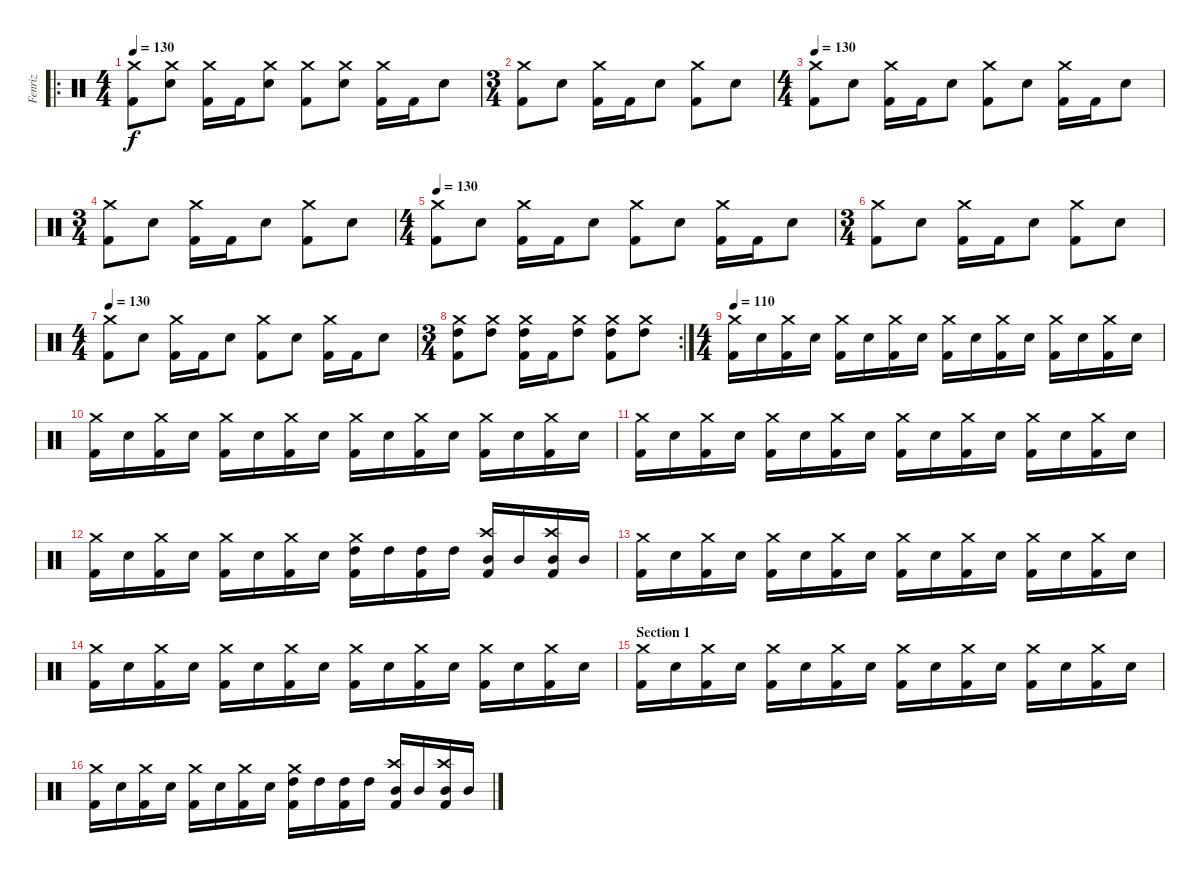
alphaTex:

\track ("Fenriz" "Fenriz") {instrument percussion}
\staff {score}
\articulation defaults
\ro
\ts (4 4)
\tempo 130
\clef neutral
\ks c
("Crash medium (hit)" "Kick (hit) 2").8{dy f} ("Crash medium (hit)" "Electric Snare (hit)").8 ("Crash medium (hit)" "Kick (hit) 2").16 "Kick (hit) 2".16 ("Crash medium (hit)" "Electric Snare (hit)").8 ("Crash medium (hit)" "Kick (hit) 2").8 ("Crash medium (hit)" "Electric Snare (hit)").8 ("Crash medium (hit)" "Kick (hit) 2").16 "Kick (hit) 2".16 "Electric Snare (hit)".8 |
\ts (3 4)
("Crash medium (hit)" "Kick (hit) 2").8 "Electric Snare (hit)".8 ("Crash medium (hit)" "Kick (hit) 2").16 "Kick (hit) 2".16 "Electric Snare (hit)".8 ("Crash medium (hit)" "Kick (hit) 2").8 "Electric Snare (hit)".8 |
\ts (4 4)
\tempo 130
("Crash medium (hit)" "Kick (hit) 2").8 "Electric Snare (hit)".8 ("Crash medium (hit)" "Kick (hit) 2").16 "Kick (hit) 2".16 "Electric Snare (hit)".8 ("Crash medium (hit)" "Kick (hit) 2").8 "Electric Snare (hit)".8 ("Crash medium (hit)" "Kick (hit) 2").16 "Kick (hit) 2".16 "Electric Snare (hit)".8 |
\ts (3 4)
("Crash medium (hit)" "Kick (hit) 2").8 "Electric Snare (hit)".8 ("Crash medium (hit)" "Kick (hit) 2").16 "Kick (hit) 2".16 "Electric Snare (hit)".8 ("Crash medium (hit)" "Kick (hit) 2").8 "Electric Snare (hit)".8 |
\ts (4 4)
\tempo 130
("Crash medium (hit)" "Kick (hit) 2").8 "Electric Snare (hit)".8 ("Crash medium (hit)" "Kick (hit) 2").16 "Kick (hit) 2".16 "Electric Snare (hit)".8 ("Crash medium (hit)" "Kick (hit) 2").8 "Electric Snare (hit)".8 ("Crash medium (hit)" "Kick (hit) 2").16 "Kick (hit) 2".16 "Electric Snare (hit)".8 |
\ts (3 4)
("Crash medium (hit)" "Kick (hit) 2").8 "Electric Snare (hit)".8 ("Crash medium (hit)" "Kick (hit) 2").16 "Kick (hit) 2".16 "Electric Snare (hit)".8 ("Crash medium (hit)" "Kick (hit) 2").8 "Electric Snare (hit)".8 |
\ts (4 4)
\tempo 130
("Crash medium (hit)" "Kick (hit) 2").8 "Electric Snare (hit)".8 ("Crash medium (hit)" "Kick (hit) 2").16 "Kick (hit) 2".16 "Electric Snare (hit)".8 ("Crash medium (hit)" "Kick (hit) 2").8 "Electric Snare (hit)".8 ("Crash medium (hit)" "Kick (hit) 2").16 "Kick (hit) 2".16 "Electric Snare (hit)".8 |
\rc 2
\ts (3 4)
("Crash medium (hit)" "High Tom (hit)" "Kick (hit) 2").8 ("Crash medium (hit)" "High Tom (hit)").8 ("Crash medium (hit)" "High Tom (hit)" "Kick (hit) 2").16 "Kick (hit) 2".16 ("Crash medium (hit)" "High Tom (hit)").8 ("Crash medium (hit)" "High Tom (hit)" "Kick (hit) 2").8 ("Crash medium (hit)" "High Tom (hit)").8 |
\ts (4 4)
\tempo 110
("Crash medium (hit)" "Kick (hit) 2").16{volume 13} "Electric Snare (hit)".16 ("Crash medium (hit)" "Kick (hit) 2").16 "Electric Snare (hit)".16 ("Crash medium (hit)" "Kick (hit) 2").16 "Electric Snare (hit)".16 ("Crash medium (hit)" "Kick (hit) 2").16 "Electric Snare (hit)".16 ("Crash medium (hit)" "Kick (hit) 2").16 "Electric Snare (hit)".16 ("Crash medium (hit)" "Kick (hit) 2").16 "Electric Snare (hit)".16 ("Crash medium (hit)" "Kick (hit) 2").16 "Electric Snare (hit)".16 ("Crash medium (hit)" "Kick (hit) 2").16 "Electric Snare (hit)".16 |
("Crash medium (hit)" "Kick (hit) 2").16 "Electric Snare (hit)".16 ("Crash medium (hit)" "Kick (hit) 2").16 "Electric Snare (hit)".16 ("Crash medium (hit)" "Kick (hit) 2").16 "Electric Snare (hit)".16 ("Crash medium (hit)" "Kick (hit) 2").16 "Electric Snare (hit)".16 ("Crash medium (hit)" "Kick (hit) 2").16 "Electric Snare (hit)".16 ("Crash medium (hit)" "Kick (hit) 2").16 "Electric Snare (hit)".16 ("Crash medium (hit)" "Kick (hit) 2").16 "Electric Snare (hit)".16 ("Crash medium (hit)" "Kick (hit) 2").16 "Electric Snare (hit)".16 |
("Crash medium (hit)" "Kick (hit) 2").16 "Electric Snare (hit)".16 ("Crash medium (hit)" "Kick (hit) 2").16 "Electric Snare (hit)".16 ("Crash medium (hit)" "Kick (hit) 2").16 "Electric Snare (hit)".16 ("Crash medium (hit)" "Kick (hit) 2").16 "Electric Snare (hit)".16 ("Crash medium (hit)" "Kick (hit) 2").16 "Electric Snare (hit)".16 ("Crash medium (hit)" "Kick (hit) 2").16 "Electric Snare (hit)".16 ("Crash medium (hit)" "Kick (hit) 2").16 "Electric Snare (hit)".16 ("Crash medium (hit)" "Kick (hit) 2").16 "Electric Snare (hit)".16 |
("Crash medium (hit)" "Kick (hit) 2").16 "Electric Snare (hit)".16 ("Crash medium (hit)" "Kick (hit) 2").16 "Electric Snare (hit)".16 ("Crash medium (hit)" "Kick (hit) 2").16 "Electric Snare (hit)".16 ("Crash medium (hit)" "Kick (hit) 2").16 "Electric Snare (hit)".16 ("Crash medium (hit)" "High Tom (hit)" "Kick (hit) 2").16 "High Tom (hit)".16 ("High Tom (hit)" "Kick (hit) 2").16 "High Tom (hit)".16 ("Crash high (hit)" "Mid Tom (hit)" "Kick (hit) 2").16 "Mid Tom (hit)".16 ("Crash high (hit)" "Mid Tom (hit)" "Kick (hit) 2").16 "Mid Tom (hit)".16 |
("Crash medium (hit)" "Kick (hit) 2").16 "Electric Snare (hit)".16 ("Crash medium (hit)" "Kick (hit) 2").16 "Electric Snare (hit)".16 ("Crash medium (hit)" "Kick (hit) 2").16 "Electric Snare (hit)".16 ("Crash medium (hit)" "Kick (hit) 2").16 "Electric Snare (hit)".16 ("Crash medium (hit)" "Kick (hit) 2").16 "Electric Snare (hit)".16 ("Crash medium (hit)" "Kick (hit) 2").16 "Electric Snare (hit)".16 ("Crash medium (hit)" "Kick (hit) 2").16 "Electric Snare (hit)".16 ("Crash medium (hit)" "Kick (hit) 2").16 "Electric Snare (hit)".16 |
("Crash medium (hit)" "Kick (hit) 2").16 "Electric Snare (hit)".16 ("Crash medium (hit)" "Kick (hit) 2").16 "Electric Snare (hit)".16 ("Crash medium (hit)" "Kick (hit) 2").16 "Electric Snare (hit)".16 ("Crash medium (hit)" "Kick (hit) 2").16 "Electric Snare (hit)".16 ("Crash medium (hit)" "Kick (hit) 2").16 "Electric Snare (hit)".16 ("Crash medium (hit)" "Kick (hit) 2").16 "Electric Snare (hit)".16 ("Crash medium (hit)" "Kick (hit) 2").16 "Electric Snare (hit)".16 ("Crash medium (hit)" "Kick (hit) 2").16 "Electric Snare (hit)".16 |
\section ("" "Section 1")
("Crash medium (hit)" "Kick (hit) 2").16 "Electric Snare (hit)".16 ("Crash medium (hit)" "Kick (hit) 2").16 "Electric Snare (hit)".16 ("Crash medium (hit)" "Kick (hit) 2").16 "Electric Snare (hit)".16 ("Crash medium (hit)" "Kick (hit) 2").16 "Electric Snare (hit)".16 ("Crash medium (hit)" "Kick (hit) 2").16 "Electric Snare (hit)".16 ("Crash medium (hit)" "Kick (hit) 2").16 "Electric Snare (hit)".16 ("Crash medium (hit)" "Kick (hit) 2").16 "Electric Snare (hit)".16 ("Crash medium (hit)" "Kick (hit) 2").16 "Electric Snare (hit)".16 |
("Crash medium (hit)" "Kick (hit) 2").16 "Electric Snare (hit)".16 ("Crash medium (hit)" "Kick (hit) 2").16 "Electric Snare (hit)".16 ("Crash medium (hit)" "Kick (hit) 2").16 "Electric Snare (hit)".16 ("Crash medium (hit)" "Kick (hit) 2").16 "Electric Snare (hit)".16 ("Crash medium (hit)" "High Tom (hit)" "Kick (hit) 2").16 "High Tom (hit)".16 ("High Tom (hit)" "Kick (hit) 2").16 "High Tom (hit)".16 ("Crash high (hit)" "Mid Tom (hit)" "Kick (hit) 2").16 "Mid Tom (hit)".16 ("Crash high (hit)" "Mid Tom (hit)" "Kick (hit) 2").16 "Mid Tom (hit)".16
